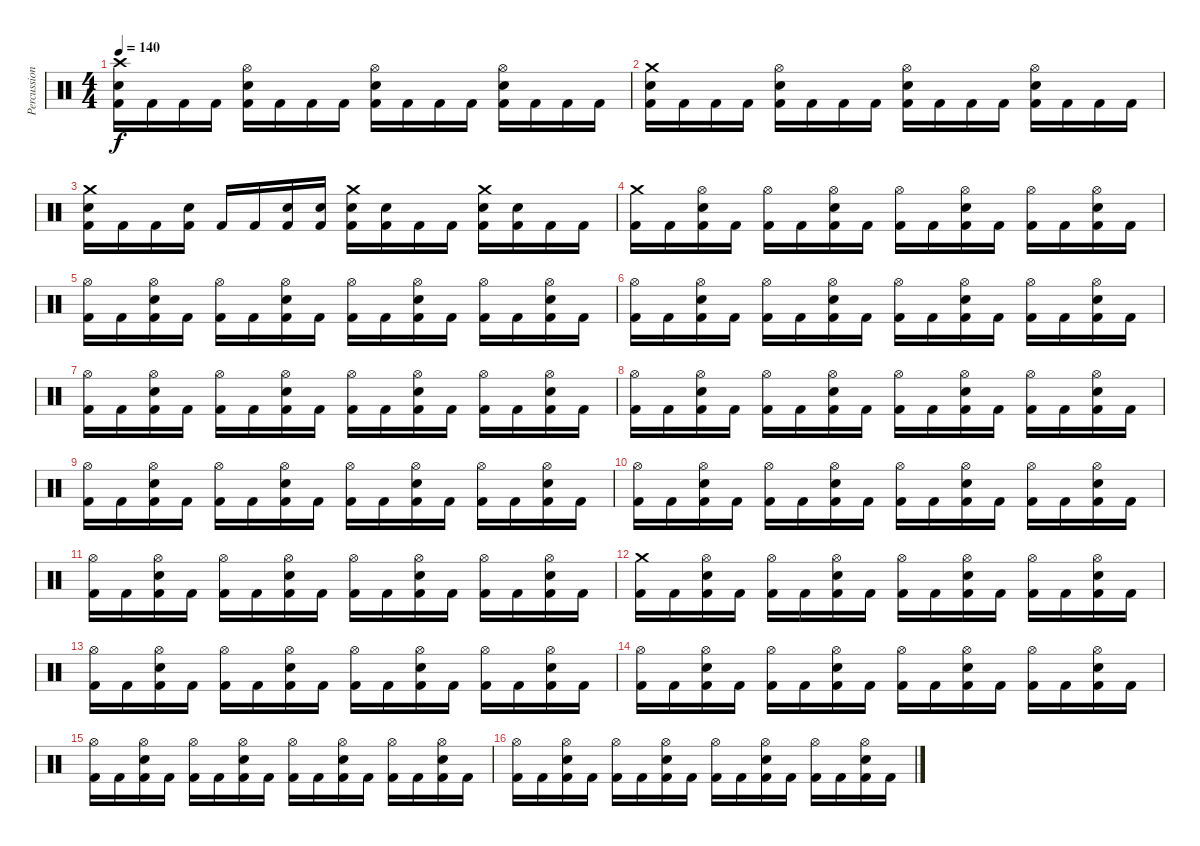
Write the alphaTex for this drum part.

\track ("Percussion" "Percussion") {instrument percussion}
\staff {score}
\articulation defaults
\ts (4 4)
\tempo 140
\clef neutral
\ks c
("Kick (hit) 2" "Electric Snare (hit)" "Crash high (hit)").16{dy f} "Kick (hit) 2".16 "Kick (hit) 2".16 "Kick (hit) 2".16 ("Kick (hit) 2" "Electric Snare (hit)" "Hi-Hat (open)").16 "Kick (hit) 2".16 "Kick (hit) 2".16 "Kick (hit) 2".16 ("Kick (hit) 2" "Electric Snare (hit)" "Hi-Hat (open)").16 "Kick (hit) 2".16 "Kick (hit) 2".16 "Kick (hit) 2".16 ("Kick (hit) 2" "Electric Snare (hit)" "Hi-Hat (open)").16 "Kick (hit) 2".16 "Kick (hit) 2".16 "Kick (hit) 2".16 |
("Kick (hit) 2" "Electric Snare (hit)" "Crash medium (hit)").16 "Kick (hit) 2".16 "Kick (hit) 2".16 "Kick (hit) 2".16 ("Kick (hit) 2" "Electric Snare (hit)" "Hi-Hat (open)").16 "Kick (hit) 2".16 "Kick (hit) 2".16 "Kick (hit) 2".16 ("Kick (hit) 2" "Electric Snare (hit)" "Hi-Hat (open)").16 "Kick (hit) 2".16 "Kick (hit) 2".16 "Kick (hit) 2".16 ("Kick (hit) 2" "Electric Snare (hit)" "Hi-Hat (open)").16 "Kick (hit) 2".16 "Kick (hit) 2".16 "Kick (hit) 2".16 |
("Kick (hit) 2" "Electric Snare (hit)" "Crash medium (hit)").16 "Kick (hit) 2".16 "Kick (hit) 2".16 ("Kick (hit) 2" "Electric Snare (hit)").16 "Kick (hit) 2".16 "Kick (hit) 2".16 ("Kick (hit) 2" "Electric Snare (hit)").16 ("Kick (hit) 2" "Electric Snare (hit)").16 ("Kick (hit) 2" "Electric Snare (hit)" "Crash medium (hit)").16 ("Kick (hit) 2" "Electric Snare (hit)").16 "Kick (hit) 2".16 "Kick (hit) 2".16 ("Kick (hit) 2" "Electric Snare (hit)" "Crash medium (hit)").16 ("Kick (hit) 2" "Electric Snare (hit)").16 "Kick (hit) 2".16 "Kick (hit) 2".16 |
("Kick (hit) 2" "Crash medium (hit)").16 "Kick (hit) 2".16 ("Kick (hit) 2" "Electric Snare (hit)" "Hi-Hat (open)").16 "Kick (hit) 2".16 ("Kick (hit) 2" "Hi-Hat (open)").16 "Kick (hit) 2".16 ("Kick (hit) 2" "Electric Snare (hit)" "Hi-Hat (open)").16 "Kick (hit) 2".16 ("Kick (hit) 2" "Hi-Hat (open)").16 "Kick (hit) 2".16 ("Kick (hit) 2" "Electric Snare (hit)" "Hi-Hat (open)").16 "Kick (hit) 2".16 ("Kick (hit) 2" "Hi-Hat (open)").16 "Kick (hit) 2".16 ("Kick (hit) 2" "Electric Snare (hit)" "Hi-Hat (open)").16 "Kick (hit) 2".16 |
("Kick (hit) 2" "Hi-Hat (open)").16 "Kick (hit) 2".16 ("Kick (hit) 2" "Electric Snare (hit)" "Hi-Hat (open)").16 "Kick (hit) 2".16 ("Kick (hit) 2" "Hi-Hat (open)").16 "Kick (hit) 2".16 ("Kick (hit) 2" "Electric Snare (hit)" "Hi-Hat (open)").16 "Kick (hit) 2".16 ("Kick (hit) 2" "Hi-Hat (open)").16 "Kick (hit) 2".16 ("Kick (hit) 2" "Electric Snare (hit)" "Hi-Hat (open)").16 "Kick (hit) 2".16 ("Kick (hit) 2" "Hi-Hat (open)").16 "Kick (hit) 2".16 ("Kick (hit) 2" "Electric Snare (hit)" "Hi-Hat (open)").16 "Kick (hit) 2".16 |
("Kick (hit) 2" "Hi-Hat (open)").16 "Kick (hit) 2".16 ("Kick (hit) 2" "Electric Snare (hit)" "Hi-Hat (open)").16 "Kick (hit) 2".16 ("Kick (hit) 2" "Hi-Hat (open)").16 "Kick (hit) 2".16 ("Kick (hit) 2" "Electric Snare (hit)" "Hi-Hat (open)").16 "Kick (hit) 2".16 ("Kick (hit) 2" "Hi-Hat (open)").16 "Kick (hit) 2".16 ("Kick (hit) 2" "Electric Snare (hit)" "Hi-Hat (open)").16 "Kick (hit) 2".16 ("Kick (hit) 2" "Hi-Hat (open)").16 "Kick (hit) 2".16 ("Kick (hit) 2" "Electric Snare (hit)" "Hi-Hat (open)").16 "Kick (hit) 2".16 |
("Kick (hit) 2" "Hi-Hat (open)").16 "Kick (hit) 2".16 ("Kick (hit) 2" "Electric Snare (hit)" "Hi-Hat (open)").16 "Kick (hit) 2".16 ("Kick (hit) 2" "Hi-Hat (open)").16 "Kick (hit) 2".16 ("Kick (hit) 2" "Electric Snare (hit)" "Hi-Hat (open)").16 "Kick (hit) 2".16 ("Kick (hit) 2" "Hi-Hat (open)").16 "Kick (hit) 2".16 ("Kick (hit) 2" "Electric Snare (hit)" "Hi-Hat (open)").16 "Kick (hit) 2".16 ("Kick (hit) 2" "Hi-Hat (open)").16 "Kick (hit) 2".16 ("Kick (hit) 2" "Electric Snare (hit)" "Hi-Hat (open)").16 "Kick (hit) 2".16 |
("Kick (hit) 2" "Hi-Hat (open)").16 "Kick (hit) 2".16 ("Kick (hit) 2" "Electric Snare (hit)" "Hi-Hat (open)").16 "Kick (hit) 2".16 ("Kick (hit) 2" "Hi-Hat (open)").16 "Kick (hit) 2".16 ("Kick (hit) 2" "Electric Snare (hit)" "Hi-Hat (open)").16 "Kick (hit) 2".16 ("Kick (hit) 2" "Hi-Hat (open)").16 "Kick (hit) 2".16 ("Kick (hit) 2" "Electric Snare (hit)" "Hi-Hat (open)").16 "Kick (hit) 2".16 ("Kick (hit) 2" "Hi-Hat (open)").16 "Kick (hit) 2".16 ("Kick (hit) 2" "Electric Snare (hit)" "Hi-Hat (open)").16 "Kick (hit) 2".16 |
("Kick (hit) 2" "Hi-Hat (open)").16 "Kick (hit) 2".16 ("Kick (hit) 2" "Electric Snare (hit)" "Hi-Hat (open)").16 "Kick (hit) 2".16 ("Kick (hit) 2" "Hi-Hat (open)").16 "Kick (hit) 2".16 ("Kick (hit) 2" "Electric Snare (hit)" "Hi-Hat (open)").16 "Kick (hit) 2".16 ("Kick (hit) 2" "Hi-Hat (open)").16 "Kick (hit) 2".16 ("Kick (hit) 2" "Electric Snare (hit)" "Hi-Hat (open)").16 "Kick (hit) 2".16 ("Kick (hit) 2" "Hi-Hat (open)").16 "Kick (hit) 2".16 ("Kick (hit) 2" "Electric Snare (hit)" "Hi-Hat (open)").16 "Kick (hit) 2".16 |
("Kick (hit) 2" "Hi-Hat (open)").16 "Kick (hit) 2".16 ("Kick (hit) 2" "Electric Snare (hit)" "Hi-Hat (open)").16 "Kick (hit) 2".16 ("Kick (hit) 2" "Hi-Hat (open)").16 "Kick (hit) 2".16 ("Kick (hit) 2" "Electric Snare (hit)" "Hi-Hat (open)").16 "Kick (hit) 2".16 ("Kick (hit) 2" "Hi-Hat (open)").16 "Kick (hit) 2".16 ("Kick (hit) 2" "Electric Snare (hit)" "Hi-Hat (open)").16 "Kick (hit) 2".16 ("Kick (hit) 2" "Hi-Hat (open)").16 "Kick (hit) 2".16 ("Kick (hit) 2" "Electric Snare (hit)" "Hi-Hat (open)").16 "Kick (hit) 2".16 |
("Kick (hit) 2" "Hi-Hat (open)").16 "Kick (hit) 2".16 ("Kick (hit) 2" "Electric Snare (hit)" "Hi-Hat (open)").16 "Kick (hit) 2".16 ("Kick (hit) 2" "Hi-Hat (open)").16 "Kick (hit) 2".16 ("Kick (hit) 2" "Electric Snare (hit)" "Hi-Hat (open)").16 "Kick (hit) 2".16 ("Kick (hit) 2" "Hi-Hat (open)").16 "Kick (hit) 2".16 ("Kick (hit) 2" "Electric Snare (hit)" "Hi-Hat (open)").16 "Kick (hit) 2".16 ("Kick (hit) 2" "Hi-Hat (open)").16 "Kick (hit) 2".16 ("Kick (hit) 2" "Electric Snare (hit)" "Hi-Hat (open)").16 "Kick (hit) 2".16 |
("Kick (hit) 2" "Crash medium (hit)").16 "Kick (hit) 2".16 ("Kick (hit) 2" "Electric Snare (hit)" "Hi-Hat (open)").16 "Kick (hit) 2".16 ("Kick (hit) 2" "Hi-Hat (open)").16 "Kick (hit) 2".16 ("Kick (hit) 2" "Electric Snare (hit)" "Hi-Hat (open)").16 "Kick (hit) 2".16 ("Kick (hit) 2" "Hi-Hat (open)").16 "Kick (hit) 2".16 ("Kick (hit) 2" "Electric Snare (hit)" "Hi-Hat (open)").16 "Kick (hit) 2".16 ("Kick (hit) 2" "Hi-Hat (open)").16 "Kick (hit) 2".16 ("Kick (hit) 2" "Electric Snare (hit)" "Hi-Hat (open)").16 "Kick (hit) 2".16 |
("Kick (hit) 2" "Hi-Hat (open)").16 "Kick (hit) 2".16 ("Kick (hit) 2" "Electric Snare (hit)" "Hi-Hat (open)").16 "Kick (hit) 2".16 ("Kick (hit) 2" "Hi-Hat (open)").16 "Kick (hit) 2".16 ("Kick (hit) 2" "Electric Snare (hit)" "Hi-Hat (open)").16 "Kick (hit) 2".16 ("Kick (hit) 2" "Hi-Hat (open)").16 "Kick (hit) 2".16 ("Kick (hit) 2" "Electric Snare (hit)" "Hi-Hat (open)").16 "Kick (hit) 2".16 ("Kick (hit) 2" "Hi-Hat (open)").16 "Kick (hit) 2".16 ("Kick (hit) 2" "Electric Snare (hit)" "Hi-Hat (open)").16 "Kick (hit) 2".16 |
("Kick (hit) 2" "Hi-Hat (open)").16 "Kick (hit) 2".16 ("Kick (hit) 2" "Electric Snare (hit)" "Hi-Hat (open)").16 "Kick (hit) 2".16 ("Kick (hit) 2" "Hi-Hat (open)").16 "Kick (hit) 2".16 ("Kick (hit) 2" "Electric Snare (hit)" "Hi-Hat (open)").16 "Kick (hit) 2".16 ("Kick (hit) 2" "Hi-Hat (open)").16 "Kick (hit) 2".16 ("Kick (hit) 2" "Electric Snare (hit)" "Hi-Hat (open)").16 "Kick (hit) 2".16 ("Kick (hit) 2" "Hi-Hat (open)").16 "Kick (hit) 2".16 ("Kick (hit) 2" "Electric Snare (hit)" "Hi-Hat (open)").16 "Kick (hit) 2".16 |
("Kick (hit) 2" "Hi-Hat (open)").16 "Kick (hit) 2".16 ("Kick (hit) 2" "Electric Snare (hit)" "Hi-Hat (open)").16 "Kick (hit) 2".16 ("Kick (hit) 2" "Hi-Hat (open)").16 "Kick (hit) 2".16 ("Kick (hit) 2" "Electric Snare (hit)" "Hi-Hat (open)").16 "Kick (hit) 2".16 ("Kick (hit) 2" "Hi-Hat (open)").16 "Kick (hit) 2".16 ("Kick (hit) 2" "Electric Snare (hit)" "Hi-Hat (open)").16 "Kick (hit) 2".16 ("Kick (hit) 2" "Hi-Hat (open)").16 "Kick (hit) 2".16 ("Kick (hit) 2" "Electric Snare (hit)" "Hi-Hat (open)").16 "Kick (hit) 2".16 |
("Kick (hit) 2" "Hi-Hat (open)").16 "Kick (hit) 2".16 ("Kick (hit) 2" "Electric Snare (hit)" "Hi-Hat (open)").16 "Kick (hit) 2".16 ("Kick (hit) 2" "Hi-Hat (open)").16 "Kick (hit) 2".16 ("Kick (hit) 2" "Electric Snare (hit)" "Hi-Hat (open)").16 "Kick (hit) 2".16 ("Kick (hit) 2" "Hi-Hat (open)").16 "Kick (hit) 2".16 ("Kick (hit) 2" "Electric Snare (hit)" "Hi-Hat (open)").16 "Kick (hit) 2".16 ("Kick (hit) 2" "Hi-Hat (open)").16 "Kick (hit) 2".16 ("Kick (hit) 2" "Electric Snare (hit)" "Hi-Hat (open)").16 "Kick (hit) 2".16
